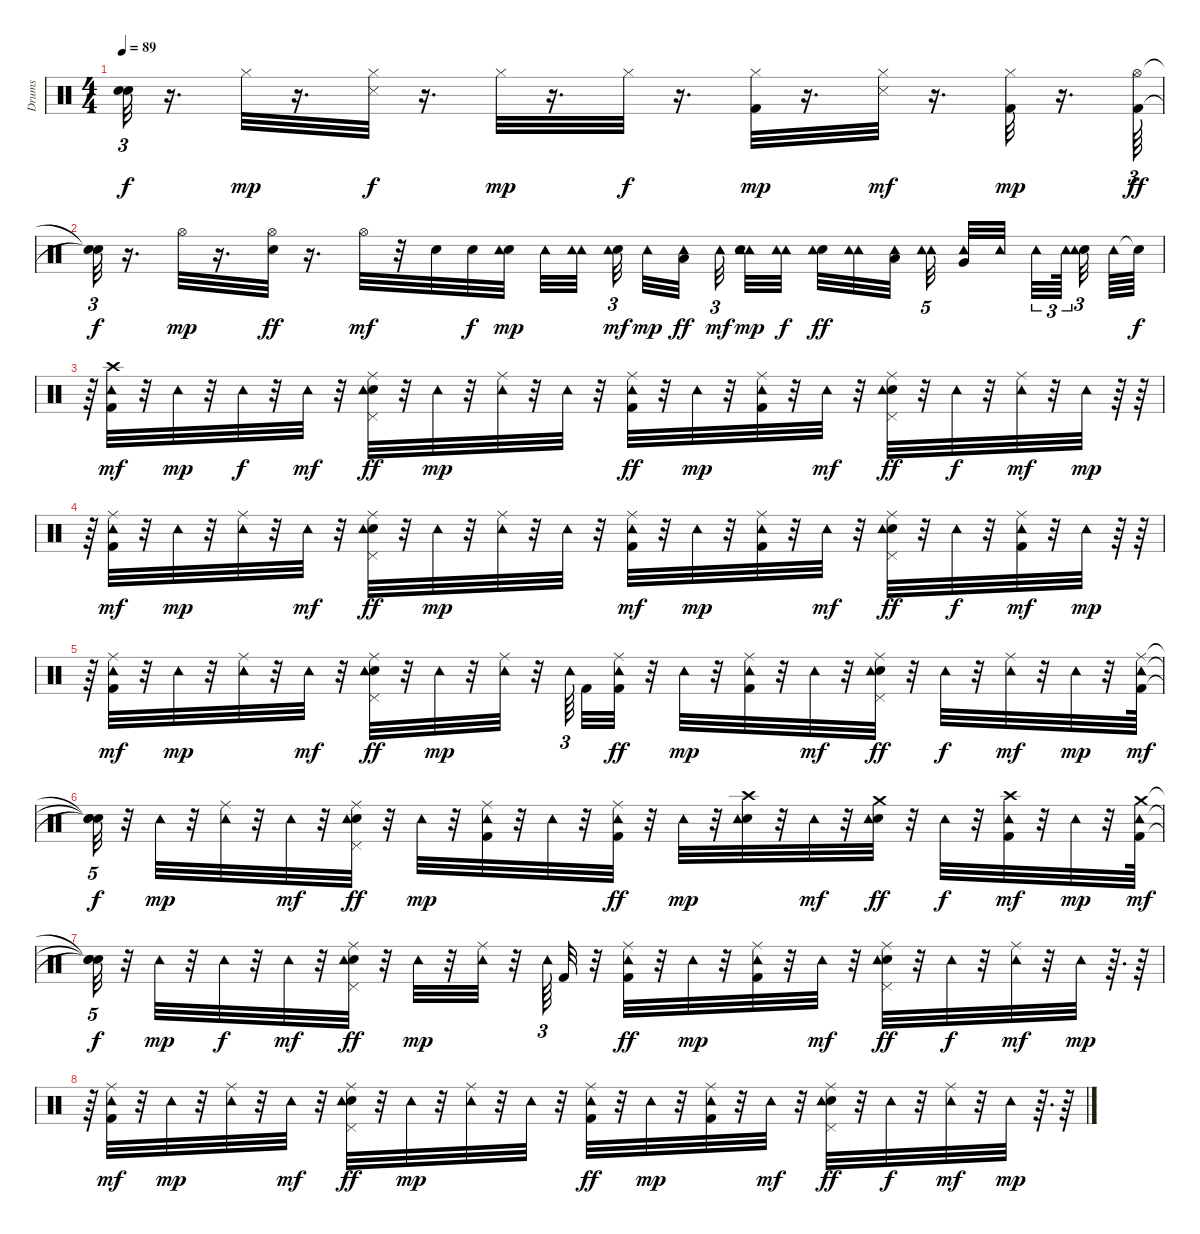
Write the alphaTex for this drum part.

\track ("Drums   " "Drums   ") {instrument percussion}
\staff {score}
\articulation defaults
\ts (4 4)
\tempo 89
\clef neutral
\ks c
("Snare (hit)"{t} "Snare (hit)"{t}).32{tu (3 2) dy f} r.16{d} "Hi-Hat (closed)".32{dy mp} r.16{d} ("Snare (side stick) 3" "Hi-Hat (closed)").32{dy f} r.16{d} "Hi-Hat (closed)".32{dy mp} r.16{d} "Hi-Hat (closed)".32{dy f} r.16{d} ("Kick (hit) 2" "Hi-Hat (closed)").32{dy mp} r.16{d} ("Snare (side stick) 3" "Hi-Hat (closed)").32{dy mf} r.16{d} ("Kick (hit) 2" "Hi-Hat (closed)").32{dy mp} r.16{d} ("Kick (hit) 2" "Hi-Hat (open)").64{tu (3 2) dy ff} |
("Snare (hit)"{t} "Snare (hit)"{t}).32{tu (3 2) dy f} r.16{d} "Hi-Hat (open)".32{dy mp} r.16{d} ("Electric Snare (hit)" "Hi-Hat (open)").32{dy ff} r.16{d} "Hi-Hat (open)".32{dy mf} r.32 "Electric Snare (hit)".32 "Electric Snare (hit)".32{dy f} ("Electric Snare (hit)" "Tambourine (hit)").32{dy mp} "Tambourine (hit)".32 ("Tambourine (hit)" "Tambourine (hit)").32{beam splitsecondary} ("Electric Snare (hit)" "Tambourine (hit)").32{tu (3 2) dy mf beam splitsecondary} "Tambourine (hit)".32{dy mp} ("Low Tom (hit)" "Tambourine (hit)").32{dy ff beam splitsecondary} "Tambourine (hit)".32{tu (3 2) dy mf beam splitsecondary} ("Tambourine (hit)" "Tambourine (hit)" "Electric Snare (hit)").32{dy mp} ("Tambourine (hit)" "Tambourine (hit)").32{dy f} ("Electric Snare (hit)" "Tambourine (hit)").32{dy ff} ("Tambourine (hit)" "Tambourine (hit)").32 ("Tambourine (hit)" "Low Tom (hit)").32{beam splitsecondary} ("Tambourine (hit)" "Tambourine (hit)").32{tu (5 4) beam splitsecondary} ("Tambourine (hit)" "Very Low Tom (hit)").32 "Tambourine (hit)".32{beam splitsecondary} "Tambourine (hit)".32{tu (3 2)} "Tambourine (hit)".64{tu (3 2) beam splitsecondary} ("Electric Snare (hit)" "Tambourine (hit)").32{tu (3 2) beam splitsecondary} "Tambourine (hit)".64 "Snare (hit)"{t}.64{dy f} |
r.64 ("Kick (hit) 2" "Crash high (hit)" "Tambourine (hit)").32{dy mf} r.32 "Tambourine (hit)".32{dy mp} r.32 "Tambourine (hit)".32{dy f} r.32 "Tambourine (hit)".32{dy mf} r.32 ("Electric Snare (hit)" "Pedal Hi-Hat (hit)" "Ride (middle)" "Tambourine (hit)").32{dy ff} r.32 "Tambourine (hit)".32{dy mp} r.32 ("Ride (middle)" "Tambourine (hit)").32 r.32 "Tambourine (hit)".32 r.32 ("Kick (hit) 2" "Ride (middle)" "Tambourine (hit)").32{dy ff} r.32 "Tambourine (hit)".32{dy mp} r.32 ("Kick (hit) 2" "Ride (middle)" "Tambourine (hit)").32 r.32 "Tambourine (hit)".32{dy mf} r.32 ("Electric Snare (hit)" "Pedal Hi-Hat (hit)" "Ride (middle)" "Tambourine (hit)").32{dy ff} r.32 "Tambourine (hit)".32{dy f} r.32 ("Ride (middle)" "Tambourine (hit)").32{dy mf} r.32 "Tambourine (hit)".32{dy mp} r.64 r.64 |
r.64 ("Kick (hit) 2" "Ride (middle)" "Tambourine (hit)").32{dy mf} r.32 "Tambourine (hit)".32{dy mp} r.32 ("Ride (middle)" "Tambourine (hit)").32 r.32 "Tambourine (hit)".32{dy mf} r.32 ("Electric Snare (hit)" "Pedal Hi-Hat (hit)" "Ride (middle)" "Tambourine (hit)").32{dy ff} r.32 "Tambourine (hit)".32{dy mp} r.32 ("Ride (middle)" "Tambourine (hit)").32 r.32 "Tambourine (hit)".32 r.32 ("Kick (hit) 2" "Ride (middle)" "Tambourine (hit)").32{dy mf} r.32 "Tambourine (hit)".32{dy mp} r.32 ("Kick (hit) 2" "Ride (middle)" "Tambourine (hit)").32 r.32 "Tambourine (hit)".32{dy mf} r.32 ("Electric Snare (hit)" "Pedal Hi-Hat (hit)" "Ride (middle)" "Tambourine (hit)").32{dy ff} r.32 "Tambourine (hit)".32{dy f} r.32 ("Kick (hit) 2" "Ride (middle)" "Tambourine (hit)").32{dy mf} r.32 "Tambourine (hit)".32{dy mp} r.64 r.64 |
r.64 ("Kick (hit) 2" "Ride (middle)" "Tambourine (hit)").32{dy mf} r.32 "Tambourine (hit)".32{dy mp} r.32 ("Ride (middle)" "Tambourine (hit)").32 r.32 "Tambourine (hit)".32{dy mf} r.32 ("Electric Snare (hit)" "Pedal Hi-Hat (hit)" "Ride (middle)" "Tambourine (hit)").32{dy ff} r.32 "Tambourine (hit)".32{dy mp} r.32 ("Ride (middle)" "Tambourine (hit)").32 r.32 "Tambourine (hit)".64{tu (3 2) beam splitsecondary} "Kick (hit) 2".32 ("Kick (hit) 2" "Ride (middle)" "Tambourine (hit)").32{dy ff} r.32 "Tambourine (hit)".32{dy mp} r.32 ("Kick (hit) 2" "Ride (middle)" "Tambourine (hit)").32 r.32 "Tambourine (hit)".32{dy mf} r.32 ("Electric Snare (hit)" "Pedal Hi-Hat (hit)" "Ride (middle)" "Tambourine (hit)").32{dy ff} r.32 "Tambourine (hit)".32{dy f} r.32 ("Ride (middle)" "Tambourine (hit)").32{dy mf} r.32 "Tambourine (hit)".32{dy mp} r.32 ("Kick (hit) 2" "Ride (middle)" "Tambourine (hit)").64{dy mf} |
("Snare (hit)"{t} "Snare (hit)"{t} "Snare (hit)"{t}).32{tu (5 4) dy f} r.32 "Tambourine (hit)".32{dy mp} r.32 ("Ride (middle)" "Tambourine (hit)").32 r.32 "Tambourine (hit)".32{dy mf} r.32 ("Electric Snare (hit)" "Pedal Hi-Hat (hit)" "Ride (middle)" "Tambourine (hit)").32{dy ff} r.32 "Tambourine (hit)".32{dy mp} r.32 ("Kick (hit) 2" "Ride (middle)" "Tambourine (hit)").32 r.32 "Tambourine (hit)".32 r.32 ("Kick (hit) 2" "Ride (middle)" "Tambourine (hit)").32{dy ff} r.32 "Tambourine (hit)".32{dy mp} r.32 ("Electric Snare (hit)" "Crash high (hit)" "Tambourine (hit)").32 r.32 "Tambourine (hit)".32{dy mf} r.32 ("Electric Snare (hit)" "Tambourine (hit)" "Crash medium (hit)").32{dy ff} r.32 "Tambourine (hit)".32{dy f} r.32 ("Kick (hit) 2" "Crash high (hit)" "Tambourine (hit)").32{dy mf} r.32 "Tambourine (hit)".32{dy mp} r.32 ("Kick (hit) 2" "Tambourine (hit)" "Crash medium (hit)").64{dy mf} |
("Snare (hit)"{t} "Snare (hit)"{t} "Snare (hit)"{t}).32{tu (5 4) dy f} r.32 "Tambourine (hit)".32{dy mp} r.32 "Tambourine (hit)".32{dy f} r.32 "Tambourine (hit)".32{dy mf} r.32 ("Electric Snare (hit)" "Pedal Hi-Hat (hit)" "Ride (middle)" "Tambourine (hit)").32{dy ff} r.32 "Tambourine (hit)".32{dy mp} r.32 ("Ride (middle)" "Tambourine (hit)").32 r.32 "Tambourine (hit)".64{tu (3 2)} "Kick (hit) 2".32 r.32 ("Kick (hit) 2" "Ride (middle)" "Tambourine (hit)").32{dy ff} r.32 "Tambourine (hit)".32{dy mp} r.32 ("Kick (hit) 2" "Ride (middle)" "Tambourine (hit)").32 r.32 "Tambourine (hit)".32{dy mf} r.32 ("Electric Snare (hit)" "Pedal Hi-Hat (hit)" "Ride (middle)" "Tambourine (hit)").32{dy ff} r.32 "Tambourine (hit)".32{dy f} r.32 ("Ride (middle)" "Tambourine (hit)").32{dy mf} r.32 "Tambourine (hit)".32{dy mp} r.64{d} r.64 |
r.64 ("Kick (hit) 2" "Ride (middle)" "Tambourine (hit)").32{dy mf} r.32 "Tambourine (hit)".32{dy mp} r.32 ("Ride (middle)" "Tambourine (hit)").32 r.32 "Tambourine (hit)".32{dy mf} r.32 ("Electric Snare (hit)" "Pedal Hi-Hat (hit)" "Ride (middle)" "Tambourine (hit)").32{dy ff} r.32 "Tambourine (hit)".32{dy mp} r.32 ("Ride (middle)" "Tambourine (hit)").32 r.32 "Tambourine (hit)".32 r.32 ("Kick (hit) 2" "Ride (middle)" "Tambourine (hit)").32{dy ff} r.32 "Tambourine (hit)".32{dy mp} r.32 ("Kick (hit) 2" "Ride (middle)" "Tambourine (hit)").32 r.32 "Tambourine (hit)".32{dy mf} r.32 ("Electric Snare (hit)" "Pedal Hi-Hat (hit)" "Ride (middle)" "Tambourine (hit)").32{dy ff} r.32 "Tambourine (hit)".32{dy f} r.32 ("Ride (middle)" "Tambourine (hit)").32{dy mf} r.32 "Tambourine (hit)".32{dy mp} r.64{d} r.64
